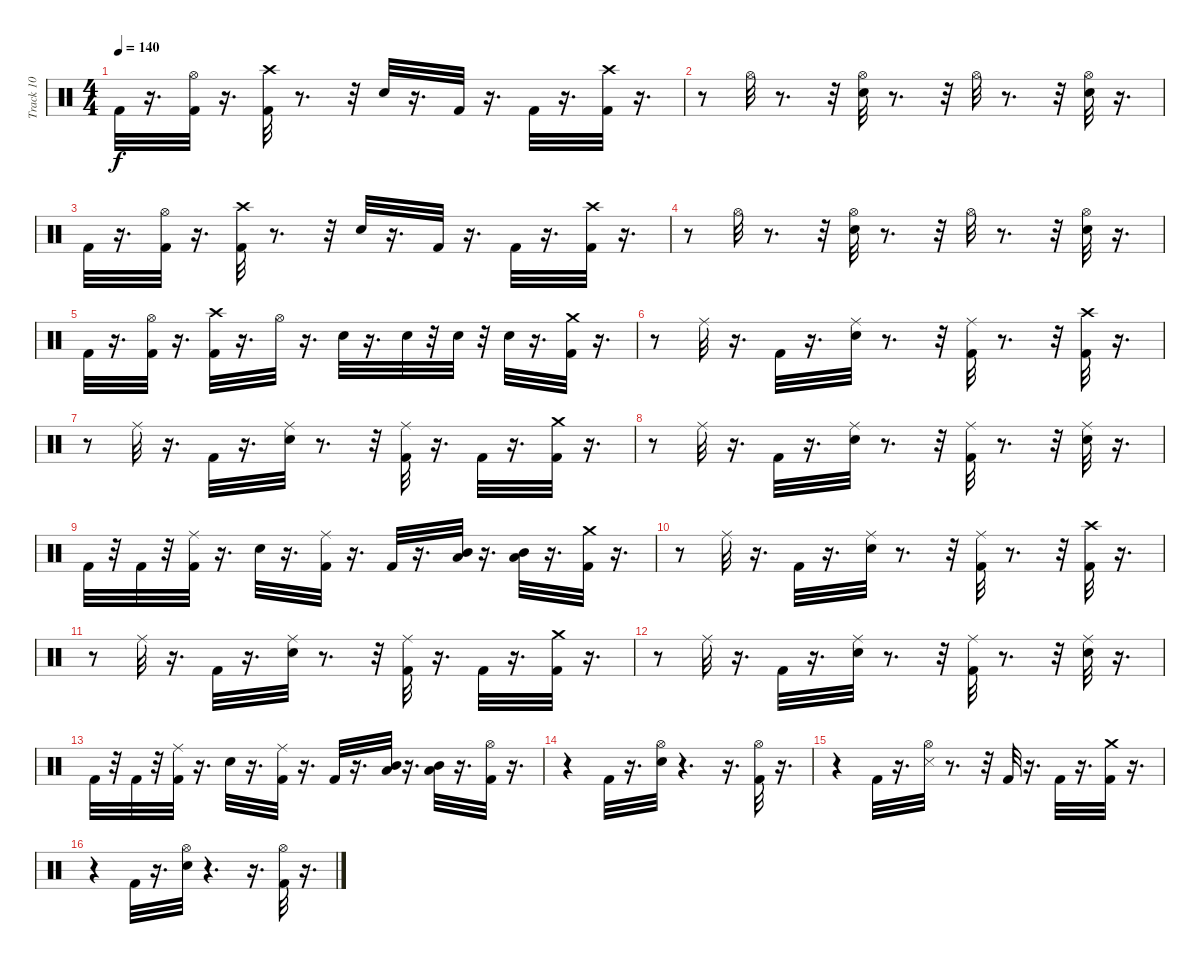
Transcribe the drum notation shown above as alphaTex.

\track ("Track 10" "Track 10") {instrument percussion}
\staff {score}
\articulation defaults
\ts (4 4)
\tempo 140
\clef neutral
\ks c "Kick (hit) 2".32{dy f}
r.16{d} ("Hi-Hat (open)" "Kick (hit) 2").32 r.16{d} ("Crash high (hit)" "Kick (hit) 2").32 r.8{d} r.32 "Electric Snare (hit)".32 r.16{d} "Kick (hit) 2".32 r.16{d} "Kick (hit) 2".32 r.16{d} ("Kick (hit) 2" "Crash high (hit)").32 r.16{d} |
r.8 "Hi-Hat (open)".32 r.8{d} r.32 ("Electric Snare (hit)" "Hi-Hat (open)").32 r.8{d} r.32 "Hi-Hat (open)".32 r.8{d} r.32 ("Hi-Hat (open)" "Electric Snare (hit)").32 r.16{d} |
"Kick (hit) 2".32 r.16{d} ("Hi-Hat (open)" "Kick (hit) 2").32 r.16{d} ("Crash high (hit)" "Kick (hit) 2").32 r.8{d} r.32 "Electric Snare (hit)".32 r.16{d} "Kick (hit) 2".32 r.16{d} "Kick (hit) 2".32 r.16{d} ("Kick (hit) 2" "Crash high (hit)").32 r.16{d} |
r.8 "Hi-Hat (open)".32 r.8{d} r.32 ("Electric Snare (hit)" "Hi-Hat (open)").32 r.8{d} r.32 "Hi-Hat (open)".32 r.8{d} r.32 ("Electric Snare (hit)" "Hi-Hat (open)").32 r.16{d} |
"Kick (hit) 2".32 r.16{d} ("Kick (hit) 2" "Hi-Hat (open)").32 r.16{d} ("Kick (hit) 2" "Crash high (hit)").32 r.16{d} "Hi-Hat (open)".32 r.16{d} "Electric Snare (hit)".32 r.16{d} "Electric Snare (hit)".32 r.32 "Electric Snare (hit)".32 r.32 "Electric Snare (hit)".32 r.16{d} ("Crash medium (hit)" "Kick (hit) 2").32 r.16{d} |
r.8 "Ride (middle)".32 r.16{d} "Kick (hit) 2".32 r.16{d} ("Electric Snare (hit)" "Ride (middle)").32 r.8{d} r.32 ("Kick (hit) 2" "Ride (middle)").32 r.8{d} r.32 ("Crash high (hit)" "Kick (hit) 2").32 r.16{d} |
r.8 "Ride (middle)".32 r.16{d} "Kick (hit) 2".32 r.16{d} ("Electric Snare (hit)" "Ride (middle)").32 r.8{d} r.32 ("Ride (middle)" "Kick (hit) 2").32 r.16{d} "Kick (hit) 2".32 r.16{d} ("Kick (hit) 2" "Crash medium (hit)").32 r.16{d} |
r.8 "Ride (middle)".32 r.16{d} "Kick (hit) 2".32 r.16{d} ("Ride (middle)" "Electric Snare (hit)").32 r.8{d} r.32 ("Ride (middle)" "Kick (hit) 2").32 r.8{d} r.32 ("Ride (middle)" "Electric Snare (hit)").32 r.16{d} |
"Kick (hit) 2".32 r.32 "Kick (hit) 2".32 r.32 ("Ride (middle)" "Kick (hit) 2").32 r.16{d} "Electric Snare (hit)".32 r.16{d} ("Ride (middle)" "Kick (hit) 2").32 r.16{d} "Kick (hit) 2".32 r.16{d} ("Mid Tom (hit)" "Low Tom (hit)").32 r.16{d} ("Low Tom (hit)" "Mid Tom (hit)").32 r.16{d} ("Kick (hit) 2" "Crash medium (hit)").32 r.16{d} |
r.8 "Ride (middle)".32 r.16{d} "Kick (hit) 2".32 r.16{d} ("Ride (middle)" "Electric Snare (hit)").32 r.8{d} r.32 ("Kick (hit) 2" "Ride (middle)").32 r.8{d} r.32 ("Crash high (hit)" "Kick (hit) 2").32 r.16{d} |
r.8 "Ride (middle)".32 r.16{d} "Kick (hit) 2".32 r.16{d} ("Ride (middle)" "Electric Snare (hit)").32 r.8{d} r.32 ("Ride (middle)" "Kick (hit) 2").32 r.16{d} "Kick (hit) 2".32 r.16{d} ("Crash medium (hit)" "Kick (hit) 2").32 r.16{d} |
r.8 "Ride (middle)".32 r.16{d} "Kick (hit) 2".32 r.16{d} ("Electric Snare (hit)" "Ride (middle)").32 r.8{d} r.32 ("Ride (middle)" "Kick (hit) 2").32 r.8{d} r.32 ("Ride (middle)" "Electric Snare (hit)").32 r.16{d} |
"Kick (hit) 2".32 r.32 "Kick (hit) 2".32 r.32 ("Ride (middle)" "Kick (hit) 2").32 r.16{d} "Electric Snare (hit)".32 r.16{d} ("Ride (middle)" "Kick (hit) 2").32 r.16{d} "Kick (hit) 2".32 r.16{d} ("Mid Tom (hit)" "Low Tom (hit)").32 r.16{d} ("Mid Tom (hit)" "Low Tom (hit)").32 r.16{d} ("Hi-Hat (open)" "Kick (hit) 2").32 r.16{d} |
r.4 "Kick (hit) 2".32 r.16{d} ("Hi-Hat (open)" "Electric Snare (hit)").32 r.4{d} r.16{d} ("Hi-Hat (open)" "Kick (hit) 2").32 r.16{d} |
r.4 "Kick (hit) 2".32 r.16{d} ("Snare (side stick) 3" "Hi-Hat (open)").32 r.8{d} r.32 "Kick (hit) 2".32 r.16{d} "Kick (hit) 2".32 r.16{d} ("Crash medium (hit)" "Kick (hit) 2").32 r.16{d} |
r.4 "Kick (hit) 2".32 r.16{d} ("Electric Snare (hit)" "Hi-Hat (open)").32 r.4{d} r.16{d} ("Hi-Hat (open)" "Kick (hit) 2").32 r.16{d}
